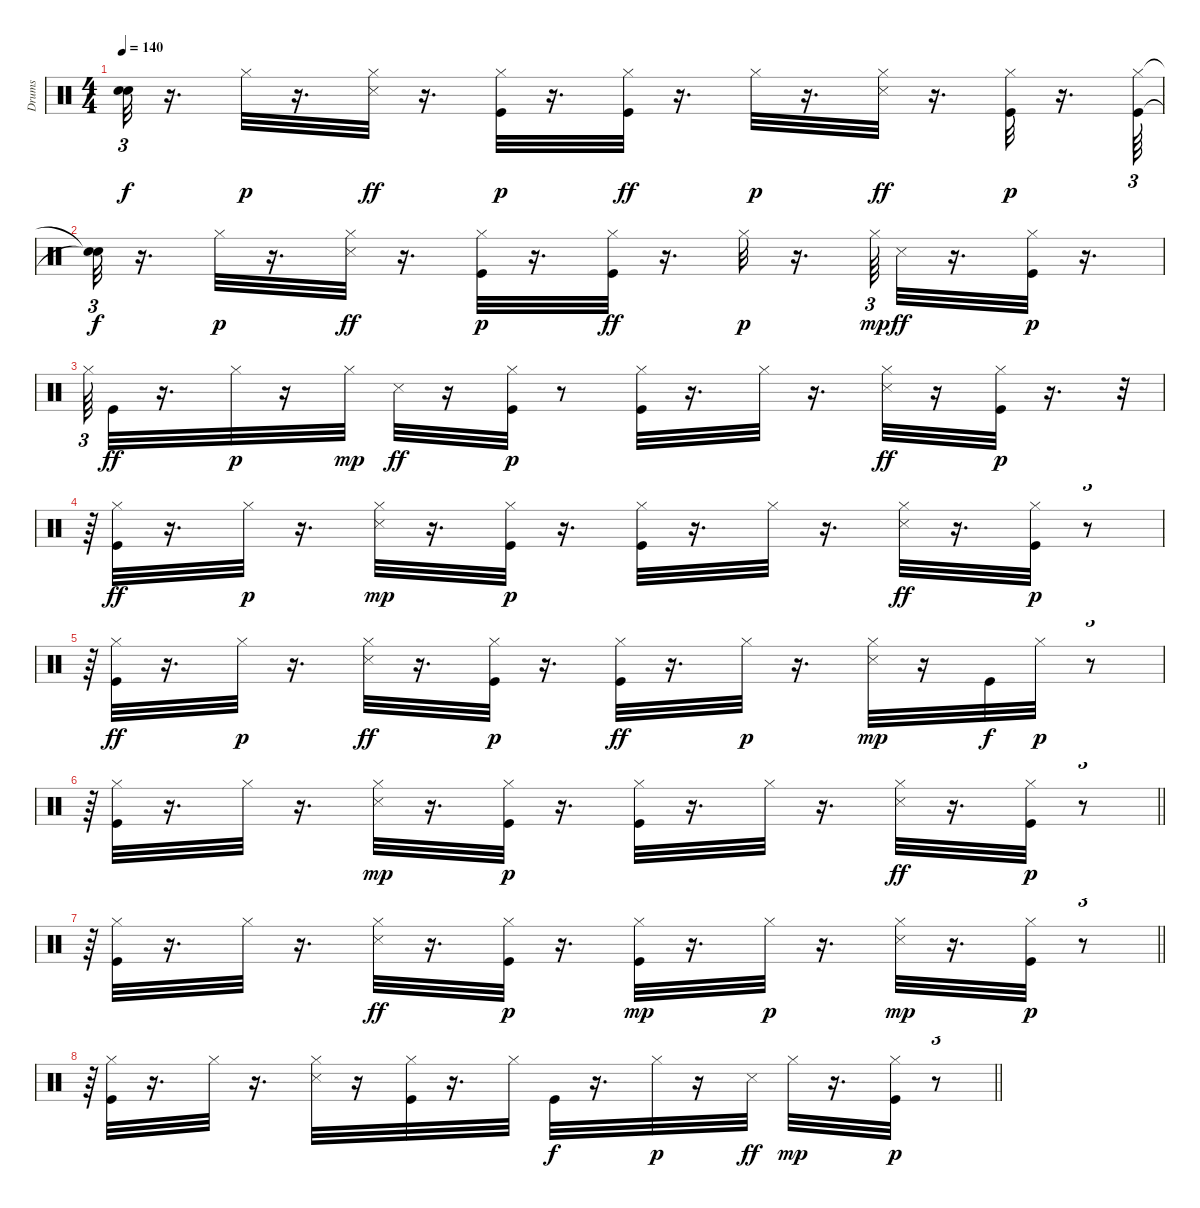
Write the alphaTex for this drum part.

\track ("Drums" "Drums") {instrument percussion}
\staff {score}
\articulation defaults
\ts (4 4)
\tempo 140
\clef neutral
\ks c
("Snare (hit)"{t} "Snare (hit)"{t}).32{tu (3 2) dy f} r.16{d} "Hi-Hat (closed)".32{dy p} r.16{d} ("Hi-Hat (closed)" "Snare (side stick) 3").32{dy ff} r.16{d} ("Kick (hit)" "Hi-Hat (closed)").32{dy p} r.16{d} ("Hi-Hat (closed)" "Kick (hit)").32{dy ff} r.16{d} "Hi-Hat (closed)".32{dy p} r.16{d} ("Hi-Hat (closed)" "Snare (side stick) 3").32{dy ff} r.16{d} ("Kick (hit)" "Hi-Hat (closed)").32{dy p} r.16{d} ("Kick (hit)" "Hi-Hat (closed)").64{tu (3 2)} |
("Snare (hit)"{t} "Snare (hit)"{t}).32{tu (3 2) dy f} r.16{d} "Hi-Hat (closed)".32{dy p} r.16{d} ("Hi-Hat (closed)" "Snare (side stick) 3").32{dy ff} r.16{d} ("Hi-Hat (closed)" "Kick (hit)").32{dy p} r.16{d} ("Hi-Hat (closed)" "Kick (hit)").32{dy ff} r.16{d} "Hi-Hat (closed)".32{dy p} r.16{d} "Hi-Hat (closed)".64{tu (3 2) dy mp} "Snare (side stick) 3".32{dy ff} r.16{d} ("Hi-Hat (closed)" "Kick (hit)").32{dy p} r.16{d} |
"Hi-Hat (closed)".64{tu (3 2)} "Kick (hit)".32{dy ff} r.16{d} "Hi-Hat (closed)".32{dy p} r.16 "Hi-Hat (closed)".32{dy mp} "Snare (side stick) 3".32{dy ff} r.16 ("Kick (hit)" "Hi-Hat (closed)").32{dy p} r.8 ("Kick (hit)" "Hi-Hat (closed)").32 r.16{d} "Hi-Hat (closed)".32 r.16{d} ("Hi-Hat (closed)" "Snare (side stick) 3").32{dy ff} r.16 ("Kick (hit)" "Hi-Hat (closed)").32{dy p} r.16{d} r.32{tu (3 2)} |
r.64{tu (3 2)} ("Hi-Hat (closed)" "Kick (hit)").32{dy ff} r.16{d} "Hi-Hat (closed)".32{dy p} r.16{d} ("Hi-Hat (closed)" "Snare (side stick) 3").32{dy mp} r.16{d} ("Kick (hit)" "Hi-Hat (closed)").32{dy p} r.16{d} ("Hi-Hat (closed)" "Kick (hit)").32 r.16{d} "Hi-Hat (closed)".32 r.16{d} ("Hi-Hat (closed)" "Snare (side stick) 3").32{dy ff} r.16{d} ("Hi-Hat (closed)" "Kick (hit)").32{dy p} r.8{tu (3 2)} |
r.64{tu (3 2)} ("Hi-Hat (closed)" "Kick (hit)").32{dy ff} r.16{d} "Hi-Hat (closed)".32{dy p} r.16{d} ("Hi-Hat (closed)" "Snare (side stick) 3").32{dy ff} r.16{d} ("Hi-Hat (closed)" "Kick (hit)").32{dy p} r.16{d} ("Hi-Hat (closed)" "Kick (hit)").32{dy ff} r.16{d} "Hi-Hat (closed)".32{dy p} r.16{d} ("Snare (side stick) 3" "Hi-Hat (closed)").32{dy mp} r.16 "Kick (hit)".32{dy f} "Hi-Hat (closed)".32{dy p} r.8{tu (3 2)} |
\barLineRight lightlight
r.64{tu (3 2)} ("Kick (hit)" "Hi-Hat (closed)").32 r.16{d} "Hi-Hat (closed)".32 r.16{d} ("Snare (side stick) 3" "Hi-Hat (closed)").32{dy mp} r.16{d} ("Kick (hit)" "Hi-Hat (closed)").32{dy p} r.16{d} ("Hi-Hat (closed)" "Kick (hit)").32 r.16{d} "Hi-Hat (closed)".32 r.16{d} ("Hi-Hat (closed)" "Snare (side stick) 3").32{dy ff} r.16{d} ("Kick (hit)" "Hi-Hat (closed)").32{dy p} r.8{tu (3 2)} |
\section ("" "")
\barLineRight lightlight
r.64{tu (3 2)} ("Kick (hit)" "Hi-Hat (closed)").32 r.16{d} "Hi-Hat (closed)".32 r.16{d} ("Hi-Hat (closed)" "Snare (side stick) 3").32{dy ff} r.16{d} ("Kick (hit)" "Hi-Hat (closed)").32{dy p} r.16{d} ("Hi-Hat (closed)" "Kick (hit)").32{dy mp} r.16{d} "Hi-Hat (closed)".32{dy p} r.16{d} ("Snare (side stick) 3" "Hi-Hat (closed)").32{dy mp} r.16{d} ("Kick (hit)" "Hi-Hat (closed)").32{dy p} r.8{tu (3 2)} |
\section ("" "")
\barLineRight lightlight
r.64{tu (3 2)} ("Kick (hit)" "Hi-Hat (closed)").32 r.16{d} "Hi-Hat (closed)".32 r.16{d} ("Snare (side stick) 3" "Hi-Hat (closed)").32 r.16 ("Kick (hit)" "Hi-Hat (closed)").32 r.16{d} "Hi-Hat (closed)".32 "Kick (hit)".32{dy f} r.16{d} "Hi-Hat (closed)".32{dy p} r.16 "Snare (side stick) 3".32{dy ff} "Hi-Hat (closed)".32{dy mp} r.16{d} ("Kick (hit)" "Hi-Hat (closed)").32{dy p} r.8{tu (3 2)}
